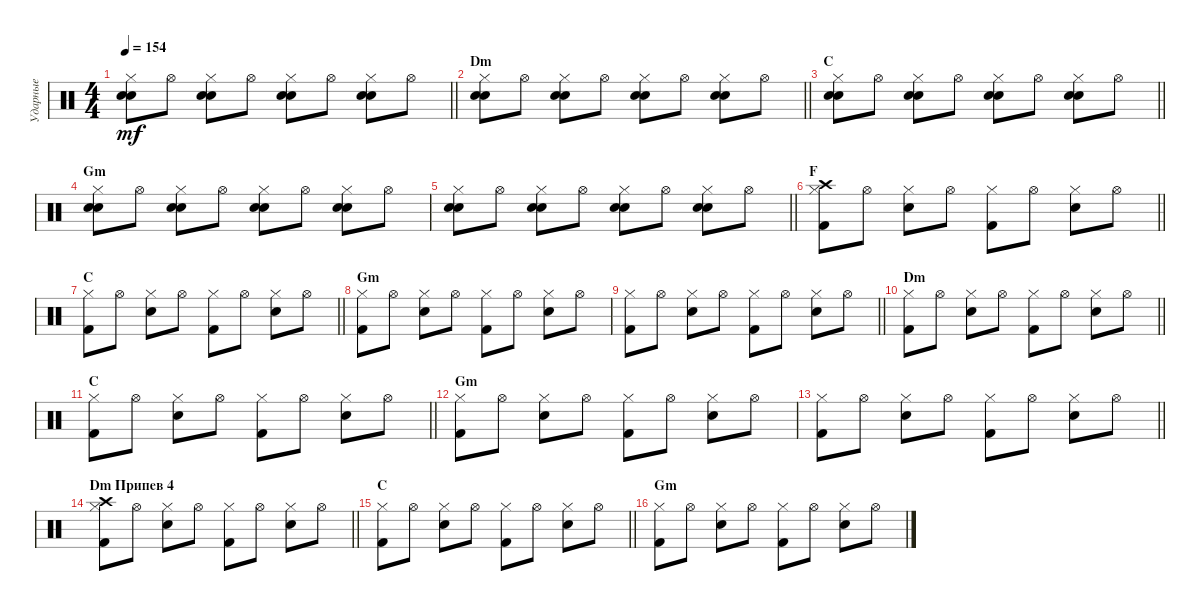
\track ("Ударные" "Ударные") {instrument percussion}
\staff {score}
\articulation defaults
\ts (4 4)
\tempo 154
\clef neutral
\barLineRight lightlight
\ks c
("Hi-Hat (closed)" "Electric Snare (hit)" "Hand Clap (hit)").8{dy mf} "Hi-Hat (open)".8 ("Hi-Hat (closed)" "Electric Snare (hit)" "Hand Clap (hit)").8 "Hi-Hat (open)".8 ("Hi-Hat (closed)" "Electric Snare (hit)" "Hand Clap (hit)").8 "Hi-Hat (open)".8 ("Hi-Hat (closed)" "Electric Snare (hit)" "Hand Clap (hit)").8 "Hi-Hat (open)".8 |
\section ("" "Dm")
\barLineRight lightlight
("Hi-Hat (closed)" "Electric Snare (hit)" "Hand Clap (hit)").8 "Hi-Hat (open)".8 ("Hi-Hat (closed)" "Electric Snare (hit)" "Hand Clap (hit)").8 "Hi-Hat (open)".8 ("Hi-Hat (closed)" "Electric Snare (hit)" "Hand Clap (hit)").8 "Hi-Hat (open)".8 ("Hi-Hat (closed)" "Electric Snare (hit)" "Hand Clap (hit)").8 "Hi-Hat (open)".8 |
\section ("" "C")
\barLineRight lightlight
("Hi-Hat (closed)" "Electric Snare (hit)" "Hand Clap (hit)").8 "Hi-Hat (open)".8 ("Hi-Hat (closed)" "Electric Snare (hit)" "Hand Clap (hit)").8 "Hi-Hat (open)".8 ("Hi-Hat (closed)" "Electric Snare (hit)" "Hand Clap (hit)").8 "Hi-Hat (open)".8 ("Hi-Hat (closed)" "Electric Snare (hit)" "Hand Clap (hit)").8 "Hi-Hat (open)".8 |
\section ("" "Gm")
("Hi-Hat (closed)" "Electric Snare (hit)" "Hand Clap (hit)").8 "Hi-Hat (open)".8 ("Hi-Hat (closed)" "Electric Snare (hit)" "Hand Clap (hit)").8 "Hi-Hat (open)".8 ("Hi-Hat (closed)" "Electric Snare (hit)" "Hand Clap (hit)").8 "Hi-Hat (open)".8 ("Hi-Hat (closed)" "Electric Snare (hit)" "Hand Clap (hit)").8 "Hi-Hat (open)".8 |
\barLineRight lightlight
("Hi-Hat (closed)" "Electric Snare (hit)" "Hand Clap (hit)").8 "Hi-Hat (open)".8 ("Hi-Hat (closed)" "Electric Snare (hit)" "Hand Clap (hit)").8 "Hi-Hat (open)".8 ("Hi-Hat (closed)" "Electric Snare (hit)" "Hand Clap (hit)").8 "Hi-Hat (open)".8 ("Hi-Hat (closed)" "Electric Snare (hit)" "Hand Clap (hit)").8 "Hi-Hat (open)".8 |
\section ("" "F")
\barLineRight lightlight
("Hi-Hat (closed)" "Kick (hit) 2" "Crash high (hit)").8 "Hi-Hat (open)".8 ("Hi-Hat (closed)" "Electric Snare (hit)").8 "Hi-Hat (open)".8 ("Hi-Hat (closed)" "Kick (hit) 2").8 "Hi-Hat (open)".8 ("Hi-Hat (closed)" "Electric Snare (hit)").8 "Hi-Hat (open)".8 |
\section ("" "C")
\barLineRight lightlight
("Hi-Hat (closed)" "Kick (hit) 2").8 "Hi-Hat (open)".8 ("Hi-Hat (closed)" "Electric Snare (hit)").8 "Hi-Hat (open)".8 ("Hi-Hat (closed)" "Kick (hit) 2").8 "Hi-Hat (open)".8 ("Hi-Hat (closed)" "Electric Snare (hit)").8 "Hi-Hat (open)".8 |
\section ("" "Gm")
("Hi-Hat (closed)" "Kick (hit) 2").8 "Hi-Hat (open)".8 ("Hi-Hat (closed)" "Electric Snare (hit)").8 "Hi-Hat (open)".8 ("Hi-Hat (closed)" "Kick (hit) 2").8 "Hi-Hat (open)".8 ("Hi-Hat (closed)" "Electric Snare (hit)").8 "Hi-Hat (open)".8 |
\barLineRight lightlight
("Hi-Hat (closed)" "Kick (hit) 2").8 "Hi-Hat (open)".8 ("Hi-Hat (closed)" "Electric Snare (hit)").8 "Hi-Hat (open)".8 ("Hi-Hat (closed)" "Kick (hit) 2").8 "Hi-Hat (open)".8 ("Hi-Hat (closed)" "Electric Snare (hit)").8 "Hi-Hat (open)".8 |
\section ("" "Dm")
\barLineRight lightlight
("Hi-Hat (closed)" "Kick (hit) 2").8 "Hi-Hat (open)".8 ("Hi-Hat (closed)" "Electric Snare (hit)").8 "Hi-Hat (open)".8 ("Hi-Hat (closed)" "Kick (hit) 2").8 "Hi-Hat (open)".8 ("Hi-Hat (closed)" "Electric Snare (hit)").8 "Hi-Hat (open)".8 |
\section ("" "C")
\barLineRight lightlight
("Hi-Hat (closed)" "Kick (hit) 2").8 "Hi-Hat (open)".8 ("Hi-Hat (closed)" "Electric Snare (hit)").8 "Hi-Hat (open)".8 ("Hi-Hat (closed)" "Kick (hit) 2").8 "Hi-Hat (open)".8 ("Hi-Hat (closed)" "Electric Snare (hit)").8 "Hi-Hat (open)".8 |
\section ("" "Gm")
("Hi-Hat (closed)" "Kick (hit) 2").8 "Hi-Hat (open)".8 ("Hi-Hat (closed)" "Electric Snare (hit)").8 "Hi-Hat (open)".8 ("Hi-Hat (closed)" "Kick (hit) 2").8 "Hi-Hat (open)".8 ("Hi-Hat (closed)" "Electric Snare (hit)").8 "Hi-Hat (open)".8 |
\barLineRight lightlight
("Hi-Hat (closed)" "Kick (hit) 2").8 "Hi-Hat (open)".8 ("Hi-Hat (closed)" "Electric Snare (hit)").8 "Hi-Hat (open)".8 ("Hi-Hat (closed)" "Kick (hit) 2").8 "Hi-Hat (open)".8 ("Hi-Hat (closed)" "Electric Snare (hit)").8 "Hi-Hat (open)".8 |
\section ("" "Dm Припев 4")
\barLineRight lightlight
("Hi-Hat (closed)" "Kick (hit) 2" "Crash high (hit)").8 "Hi-Hat (open)".8 ("Hi-Hat (closed)" "Electric Snare (hit)").8 "Hi-Hat (open)".8 ("Hi-Hat (closed)" "Kick (hit) 2").8 "Hi-Hat (open)".8 ("Hi-Hat (closed)" "Electric Snare (hit)").8 "Hi-Hat (open)".8 |
\section ("" "C")
\barLineRight lightlight
("Hi-Hat (closed)" "Kick (hit) 2").8 "Hi-Hat (open)".8 ("Hi-Hat (closed)" "Electric Snare (hit)").8 "Hi-Hat (open)".8 ("Hi-Hat (closed)" "Kick (hit) 2").8 "Hi-Hat (open)".8 ("Hi-Hat (closed)" "Electric Snare (hit)").8 "Hi-Hat (open)".8 |
\section ("" "Gm")
("Hi-Hat (closed)" "Kick (hit) 2").8 "Hi-Hat (open)".8 ("Hi-Hat (closed)" "Electric Snare (hit)").8 "Hi-Hat (open)".8 ("Hi-Hat (closed)" "Kick (hit) 2").8 "Hi-Hat (open)".8 ("Hi-Hat (closed)" "Electric Snare (hit)").8 "Hi-Hat (open)".8
